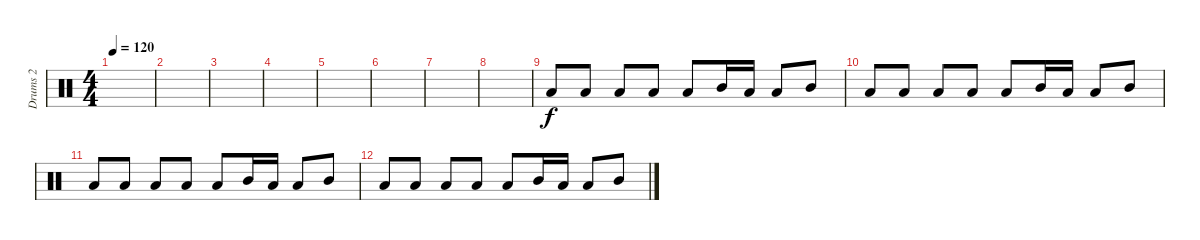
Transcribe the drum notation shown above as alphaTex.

\track ("Drums 2" "Drums 2") {instrument percussion}
\staff {score}
\articulation defaults
\ts (4 4)
\tempo 120
\clef neutral
\ks c
|
|
|
|
|
|
|
|
"Low Tom (hit)".8 "Low Tom (hit)".8 "Low Tom (hit)".8 "Low Tom (hit)".8 "Low Tom (hit)".8 "Mid Tom (hit)".16 "Low Tom (hit)".16 "Low Tom (hit)".8 "Mid Tom (hit)".8 |
"Low Tom (hit)".8 "Low Tom (hit)".8 "Low Tom (hit)".8 "Low Tom (hit)".8 "Low Tom (hit)".8 "Mid Tom (hit)".16 "Low Tom (hit)".16 "Low Tom (hit)".8 "Mid Tom (hit)".8 |
"Low Tom (hit)".8 "Low Tom (hit)".8 "Low Tom (hit)".8 "Low Tom (hit)".8 "Low Tom (hit)".8 "Mid Tom (hit)".16 "Low Tom (hit)".16 "Low Tom (hit)".8 "Mid Tom (hit)".8 |
"Low Tom (hit)".8 "Low Tom (hit)".8 "Low Tom (hit)".8 "Low Tom (hit)".8 "Low Tom (hit)".8 "Mid Tom (hit)".16 "Low Tom (hit)".16 "Low Tom (hit)".8 "Mid Tom (hit)".8
